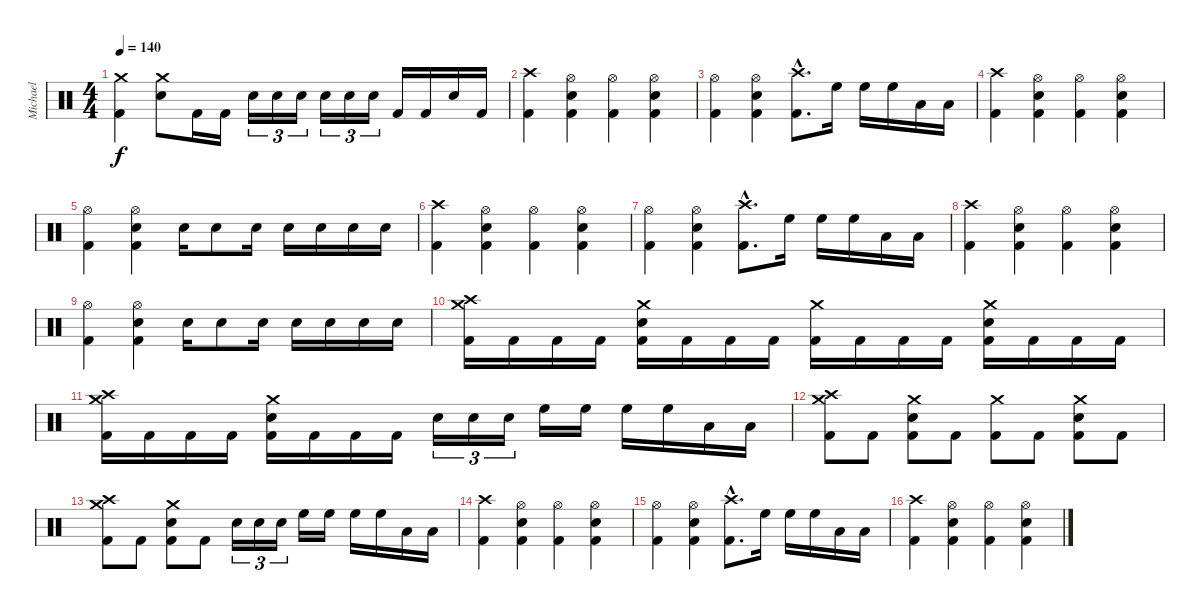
\track ("Michael" "Michael") {instrument percussion}
\staff {score}
\articulation defaults
\ts (4 4)
\tempo 140
\clef neutral
\ks c
("Crash medium (hit)" "Kick (hit) 2").4{dy f} ("Crash medium (hit)" "Electric Snare (hit)").8 "Kick (hit) 2".16 "Kick (hit) 2".16 "Electric Snare (hit)".16{tu (3 2)} "Electric Snare (hit)".16{tu (3 2)} "Electric Snare (hit)".16{tu (3 2)} "Electric Snare (hit)".16{tu (3 2)} "Electric Snare (hit)".16{tu (3 2)} "Electric Snare (hit)".16{tu (3 2)} "Kick (hit) 2".16 "Kick (hit) 2".16 "Electric Snare (hit)".16 "Kick (hit) 2".16 |
("Kick (hit) 2" "Crash high (hit)").4 ("Kick (hit) 2" "Hi-Hat (open)" "Electric Snare (hit)").4 ("Kick (hit) 2" "Hi-Hat (open)").4 ("Kick (hit) 2" "Hi-Hat (open)" "Electric Snare (hit)").4 |
("Kick (hit) 2" "Hi-Hat (open)").4 ("Kick (hit) 2" "Hi-Hat (open)" "Electric Snare (hit)").4 ("Crash high (hit)"{hac} "Kick (hit) 2"{hac}).8{d} "High Floor Tom (hit)".16 "High Floor Tom (hit)".16 "High Floor Tom (hit)".16 "Low Tom (hit)".16 "Low Tom (hit)".16 |
("Kick (hit) 2" "Crash high (hit)").4 ("Kick (hit) 2" "Hi-Hat (open)" "Electric Snare (hit)").4 ("Kick (hit) 2" "Hi-Hat (open)").4 ("Kick (hit) 2" "Hi-Hat (open)" "Electric Snare (hit)").4 |
("Kick (hit) 2" "Hi-Hat (open)").4 ("Kick (hit) 2" "Hi-Hat (open)" "Electric Snare (hit)").4 "Electric Snare (hit)".16 "Electric Snare (hit)".8 "Electric Snare (hit)".16 "Electric Snare (hit)".16 "Electric Snare (hit)".16 "Electric Snare (hit)".16 "Electric Snare (hit)".16 |
("Kick (hit) 2" "Crash high (hit)").4 ("Kick (hit) 2" "Hi-Hat (open)" "Electric Snare (hit)").4 ("Kick (hit) 2" "Hi-Hat (open)").4 ("Kick (hit) 2" "Hi-Hat (open)" "Electric Snare (hit)").4 |
("Kick (hit) 2" "Hi-Hat (open)").4 ("Kick (hit) 2" "Hi-Hat (open)" "Electric Snare (hit)").4 ("Crash high (hit)"{hac} "Kick (hit) 2"{hac}).8{d} "High Floor Tom (hit)".16 "High Floor Tom (hit)".16 "High Floor Tom (hit)".16 "Low Tom (hit)".16 "Low Tom (hit)".16 |
("Kick (hit) 2" "Crash high (hit)").4 ("Kick (hit) 2" "Hi-Hat (open)" "Electric Snare (hit)").4 ("Kick (hit) 2" "Hi-Hat (open)").4 ("Kick (hit) 2" "Hi-Hat (open)" "Electric Snare (hit)").4 |
("Kick (hit) 2" "Hi-Hat (open)").4 ("Kick (hit) 2" "Hi-Hat (open)" "Electric Snare (hit)").4 "Electric Snare (hit)".16 "Electric Snare (hit)".8 "Electric Snare (hit)".16 "Electric Snare (hit)".16 "Electric Snare (hit)".16 "Electric Snare (hit)".16 "Electric Snare (hit)".16 |
("Crash high (hit)" "Crash medium (hit)" "Kick (hit) 2").16 "Kick (hit) 2".16 "Kick (hit) 2".16 "Kick (hit) 2".16 ("Crash medium (hit)" "Electric Snare (hit)" "Kick (hit) 2").16 "Kick (hit) 2".16 "Kick (hit) 2".16 "Kick (hit) 2".16 ("Crash medium (hit)" "Kick (hit) 2").16 "Kick (hit) 2".16 "Kick (hit) 2".16 "Kick (hit) 2".16 ("Crash medium (hit)" "Electric Snare (hit)" "Kick (hit) 2").16 "Kick (hit) 2".16 "Kick (hit) 2".16 "Kick (hit) 2".16 |
("Crash high (hit)" "Crash medium (hit)" "Kick (hit) 2").16 "Kick (hit) 2".16 "Kick (hit) 2".16 "Kick (hit) 2".16 ("Crash medium (hit)" "Electric Snare (hit)" "Kick (hit) 2").16 "Kick (hit) 2".16 "Kick (hit) 2".16 "Kick (hit) 2".16 "Electric Snare (hit)".16{tu (3 2)} "Electric Snare (hit)".16{tu (3 2)} "Electric Snare (hit)".16{tu (3 2)} "High Floor Tom (hit)".16 "High Floor Tom (hit)".16 "High Floor Tom (hit)".16 "High Floor Tom (hit)".16 "Low Tom (hit)".16 "Low Tom (hit)".16 |
("Crash high (hit)" "Crash medium (hit)" "Kick (hit) 2").8 "Kick (hit) 2".8 ("Electric Snare (hit)" "Crash medium (hit)" "Kick (hit) 2").8 "Kick (hit) 2".8 ("Crash medium (hit)" "Kick (hit) 2").8 "Kick (hit) 2".8 ("Electric Snare (hit)" "Crash medium (hit)" "Kick (hit) 2").8 "Kick (hit) 2".8 |
("Crash high (hit)" "Crash medium (hit)" "Kick (hit) 2").8 "Kick (hit) 2".8 ("Electric Snare (hit)" "Crash medium (hit)" "Kick (hit) 2").8 "Kick (hit) 2".8 "Electric Snare (hit)".16{tu (3 2)} "Electric Snare (hit)".16{tu (3 2)} "Electric Snare (hit)".16{tu (3 2)} "High Floor Tom (hit)".16 "High Floor Tom (hit)".16 "High Floor Tom (hit)".16 "High Floor Tom (hit)".16 "Low Tom (hit)".16 "Low Tom (hit)".16 |
("Kick (hit) 2" "Crash high (hit)").4 ("Kick (hit) 2" "Hi-Hat (open)" "Electric Snare (hit)").4 ("Kick (hit) 2" "Hi-Hat (open)").4 ("Kick (hit) 2" "Hi-Hat (open)" "Electric Snare (hit)").4 |
("Kick (hit) 2" "Hi-Hat (open)").4 ("Kick (hit) 2" "Hi-Hat (open)" "Electric Snare (hit)").4 ("Crash high (hit)"{hac} "Kick (hit) 2"{hac}).8{d} "High Floor Tom (hit)".16 "High Floor Tom (hit)".16 "High Floor Tom (hit)".16 "Low Tom (hit)".16 "Low Tom (hit)".16 |
("Kick (hit) 2" "Crash high (hit)").4 ("Kick (hit) 2" "Hi-Hat (open)" "Electric Snare (hit)").4 ("Kick (hit) 2" "Hi-Hat (open)").4 ("Kick (hit) 2" "Hi-Hat (open)" "Electric Snare (hit)").4
